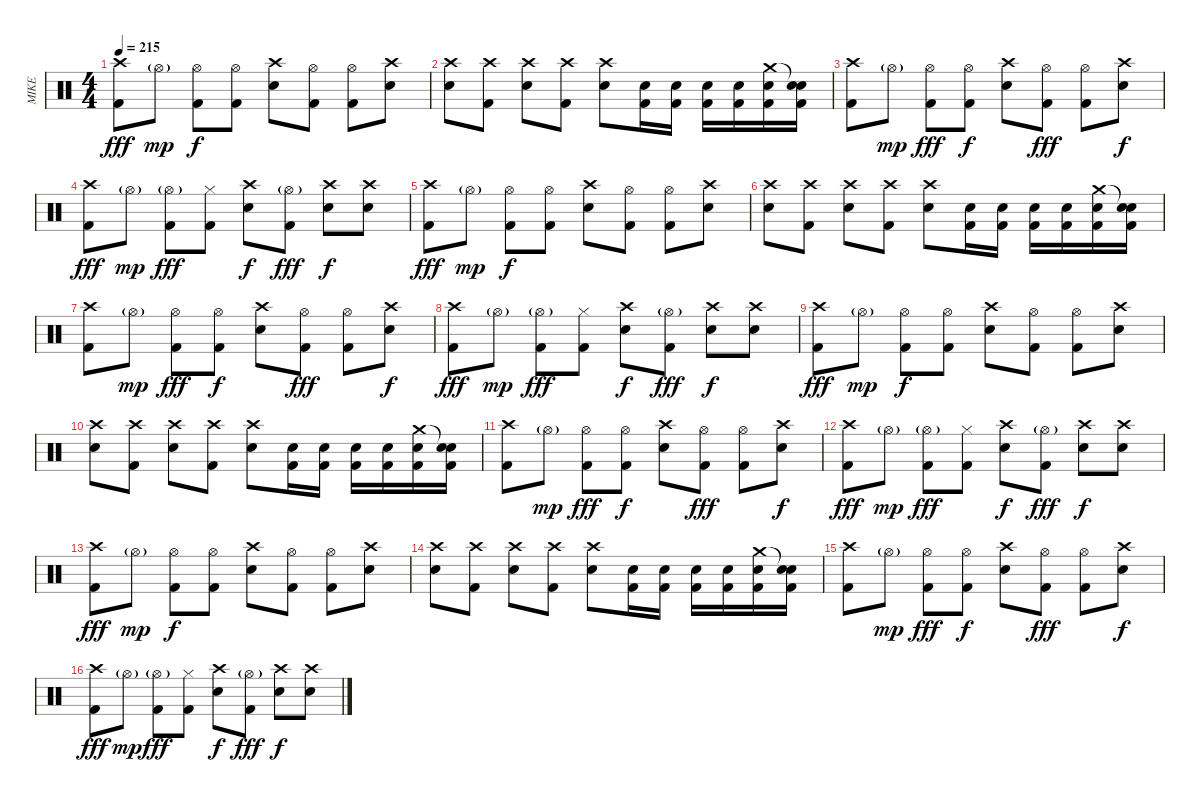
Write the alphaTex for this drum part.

\track ("MIKE" "MIKE") {instrument percussion}
\staff {score}
\articulation defaults
\ts (4 4)
\tempo 215
\clef neutral
\ks c
("Crash high (hit)" "Kick (hit) 2").8{dy fff} "Hi-Hat (open)"{g}.8{dy mp} ("Hi-Hat (open)" "Kick (hit) 2").8{dy f} ("Hi-Hat (open)" "Kick (hit) 2").8 ("Crash high (hit)" "Electric Snare (hit)").8 ("Hi-Hat (open)" "Kick (hit) 2").8 ("Hi-Hat (open)" "Kick (hit) 2").8 ("Crash high (hit)" "Electric Snare (hit)").8 |
("Crash high (hit)" "Electric Snare (hit)").8 ("Crash high (hit)" "Kick (hit) 2").8 ("Crash high (hit)" "Electric Snare (hit)").8 ("Crash high (hit)" "Kick (hit) 2").8 ("Crash high (hit)" "Electric Snare (hit)").8 ("Electric Snare (hit)" "Kick (hit) 2").16 ("Electric Snare (hit)" "Kick (hit) 2").16 ("Electric Snare (hit)" "Kick (hit) 2").16 ("Electric Snare (hit)" "Kick (hit) 2").16 ("Crash medium (hit)" "Electric Snare (hit)" "Kick (hit) 2").16 ("Snare (hit)"{t} "Electric Snare (hit)" "Kick (hit) 2").16 |
("Crash high (hit)" "Kick (hit) 2").8 "Hi-Hat (open)"{g}.8{dy mp} ("Hi-Hat (open)" "Kick (hit) 2").8{dy fff} ("Hi-Hat (open)" "Kick (hit) 2").8{dy f} ("Crash high (hit)" "Electric Snare (hit)").8 ("Hi-Hat (open)" "Kick (hit) 2").8{dy fff} ("Hi-Hat (open)" "Kick (hit) 2").8 ("Crash high (hit)" "Electric Snare (hit)").8{dy f} |
("Crash high (hit)" "Kick (hit) 2").8{dy fff} "Hi-Hat (open)"{g}.8{dy mp} ("Hi-Hat (open)"{g} "Kick (hit) 2").8{dy fff} ("Hi-Hat (closed)" "Kick (hit) 2").8 ("Crash high (hit)" "Electric Snare (hit)").8{dy f} ("Hi-Hat (open)"{g} "Kick (hit) 2").8{dy fff} ("Crash high (hit)" "Electric Snare (hit)").8{dy f} ("Crash high (hit)" "Electric Snare (hit)").8 |
("Crash high (hit)" "Kick (hit) 2").8{dy fff} "Hi-Hat (open)"{g}.8{dy mp} ("Hi-Hat (open)" "Kick (hit) 2").8{dy f} ("Hi-Hat (open)" "Kick (hit) 2").8 ("Crash high (hit)" "Electric Snare (hit)").8 ("Hi-Hat (open)" "Kick (hit) 2").8 ("Hi-Hat (open)" "Kick (hit) 2").8 ("Crash high (hit)" "Electric Snare (hit)").8 |
("Crash high (hit)" "Electric Snare (hit)").8 ("Crash high (hit)" "Kick (hit) 2").8 ("Crash high (hit)" "Electric Snare (hit)").8 ("Crash high (hit)" "Kick (hit) 2").8 ("Crash high (hit)" "Electric Snare (hit)").8 ("Electric Snare (hit)" "Kick (hit) 2").16 ("Electric Snare (hit)" "Kick (hit) 2").16 ("Electric Snare (hit)" "Kick (hit) 2").16 ("Electric Snare (hit)" "Kick (hit) 2").16 ("Crash medium (hit)" "Electric Snare (hit)" "Kick (hit) 2").16 ("Snare (hit)"{t} "Electric Snare (hit)" "Kick (hit) 2").16 |
("Crash high (hit)" "Kick (hit) 2").8 "Hi-Hat (open)"{g}.8{dy mp} ("Hi-Hat (open)" "Kick (hit) 2").8{dy fff} ("Hi-Hat (open)" "Kick (hit) 2").8{dy f} ("Crash high (hit)" "Electric Snare (hit)").8 ("Hi-Hat (open)" "Kick (hit) 2").8{dy fff} ("Hi-Hat (open)" "Kick (hit) 2").8 ("Crash high (hit)" "Electric Snare (hit)").8{dy f} |
("Crash high (hit)" "Kick (hit) 2").8{dy fff} "Hi-Hat (open)"{g}.8{dy mp} ("Hi-Hat (open)"{g} "Kick (hit) 2").8{dy fff} ("Hi-Hat (closed)" "Kick (hit) 2").8 ("Crash high (hit)" "Electric Snare (hit)").8{dy f} ("Hi-Hat (open)"{g} "Kick (hit) 2").8{dy fff} ("Crash high (hit)" "Electric Snare (hit)").8{dy f} ("Crash high (hit)" "Electric Snare (hit)").8 |
("Crash high (hit)" "Kick (hit) 2").8{dy fff} "Hi-Hat (open)"{g}.8{dy mp} ("Hi-Hat (open)" "Kick (hit) 2").8{dy f} ("Hi-Hat (open)" "Kick (hit) 2").8 ("Crash high (hit)" "Electric Snare (hit)").8 ("Hi-Hat (open)" "Kick (hit) 2").8 ("Hi-Hat (open)" "Kick (hit) 2").8 ("Crash high (hit)" "Electric Snare (hit)").8 |
("Crash high (hit)" "Electric Snare (hit)").8 ("Crash high (hit)" "Kick (hit) 2").8 ("Crash high (hit)" "Electric Snare (hit)").8 ("Crash high (hit)" "Kick (hit) 2").8 ("Crash high (hit)" "Electric Snare (hit)").8 ("Electric Snare (hit)" "Kick (hit) 2").16 ("Electric Snare (hit)" "Kick (hit) 2").16 ("Electric Snare (hit)" "Kick (hit) 2").16 ("Electric Snare (hit)" "Kick (hit) 2").16 ("Crash medium (hit)" "Electric Snare (hit)" "Kick (hit) 2").16 ("Snare (hit)"{t} "Electric Snare (hit)" "Kick (hit) 2").16 |
("Crash high (hit)" "Kick (hit) 2").8 "Hi-Hat (open)"{g}.8{dy mp} ("Hi-Hat (open)" "Kick (hit) 2").8{dy fff} ("Hi-Hat (open)" "Kick (hit) 2").8{dy f} ("Crash high (hit)" "Electric Snare (hit)").8 ("Hi-Hat (open)" "Kick (hit) 2").8{dy fff} ("Hi-Hat (open)" "Kick (hit) 2").8 ("Crash high (hit)" "Electric Snare (hit)").8{dy f} |
("Crash high (hit)" "Kick (hit) 2").8{dy fff} "Hi-Hat (open)"{g}.8{dy mp} ("Hi-Hat (open)"{g} "Kick (hit) 2").8{dy fff} ("Hi-Hat (closed)" "Kick (hit) 2").8 ("Crash high (hit)" "Electric Snare (hit)").8{dy f} ("Hi-Hat (open)"{g} "Kick (hit) 2").8{dy fff} ("Crash high (hit)" "Electric Snare (hit)").8{dy f} ("Crash high (hit)" "Electric Snare (hit)").8 |
("Crash high (hit)" "Kick (hit) 2").8{dy fff} "Hi-Hat (open)"{g}.8{dy mp} ("Hi-Hat (open)" "Kick (hit) 2").8{dy f} ("Hi-Hat (open)" "Kick (hit) 2").8 ("Crash high (hit)" "Electric Snare (hit)").8 ("Hi-Hat (open)" "Kick (hit) 2").8 ("Hi-Hat (open)" "Kick (hit) 2").8 ("Crash high (hit)" "Electric Snare (hit)").8 |
("Crash high (hit)" "Electric Snare (hit)").8 ("Crash high (hit)" "Kick (hit) 2").8 ("Crash high (hit)" "Electric Snare (hit)").8 ("Crash high (hit)" "Kick (hit) 2").8 ("Crash high (hit)" "Electric Snare (hit)").8 ("Electric Snare (hit)" "Kick (hit) 2").16 ("Electric Snare (hit)" "Kick (hit) 2").16 ("Electric Snare (hit)" "Kick (hit) 2").16 ("Electric Snare (hit)" "Kick (hit) 2").16 ("Crash medium (hit)" "Electric Snare (hit)" "Kick (hit) 2").16 ("Snare (hit)"{t} "Electric Snare (hit)" "Kick (hit) 2").16 |
("Crash high (hit)" "Kick (hit) 2").8 "Hi-Hat (open)"{g}.8{dy mp} ("Hi-Hat (open)" "Kick (hit) 2").8{dy fff} ("Hi-Hat (open)" "Kick (hit) 2").8{dy f} ("Crash high (hit)" "Electric Snare (hit)").8 ("Hi-Hat (open)" "Kick (hit) 2").8{dy fff} ("Hi-Hat (open)" "Kick (hit) 2").8 ("Crash high (hit)" "Electric Snare (hit)").8{dy f} |
("Crash high (hit)" "Kick (hit) 2").8{dy fff} "Hi-Hat (open)"{g}.8{dy mp} ("Hi-Hat (open)"{g} "Kick (hit) 2").8{dy fff} ("Hi-Hat (closed)" "Kick (hit) 2").8 ("Crash high (hit)" "Electric Snare (hit)").8{dy f} ("Hi-Hat (open)"{g} "Kick (hit) 2").8{dy fff} ("Crash high (hit)" "Electric Snare (hit)").8{dy f} ("Crash high (hit)" "Electric Snare (hit)").8
